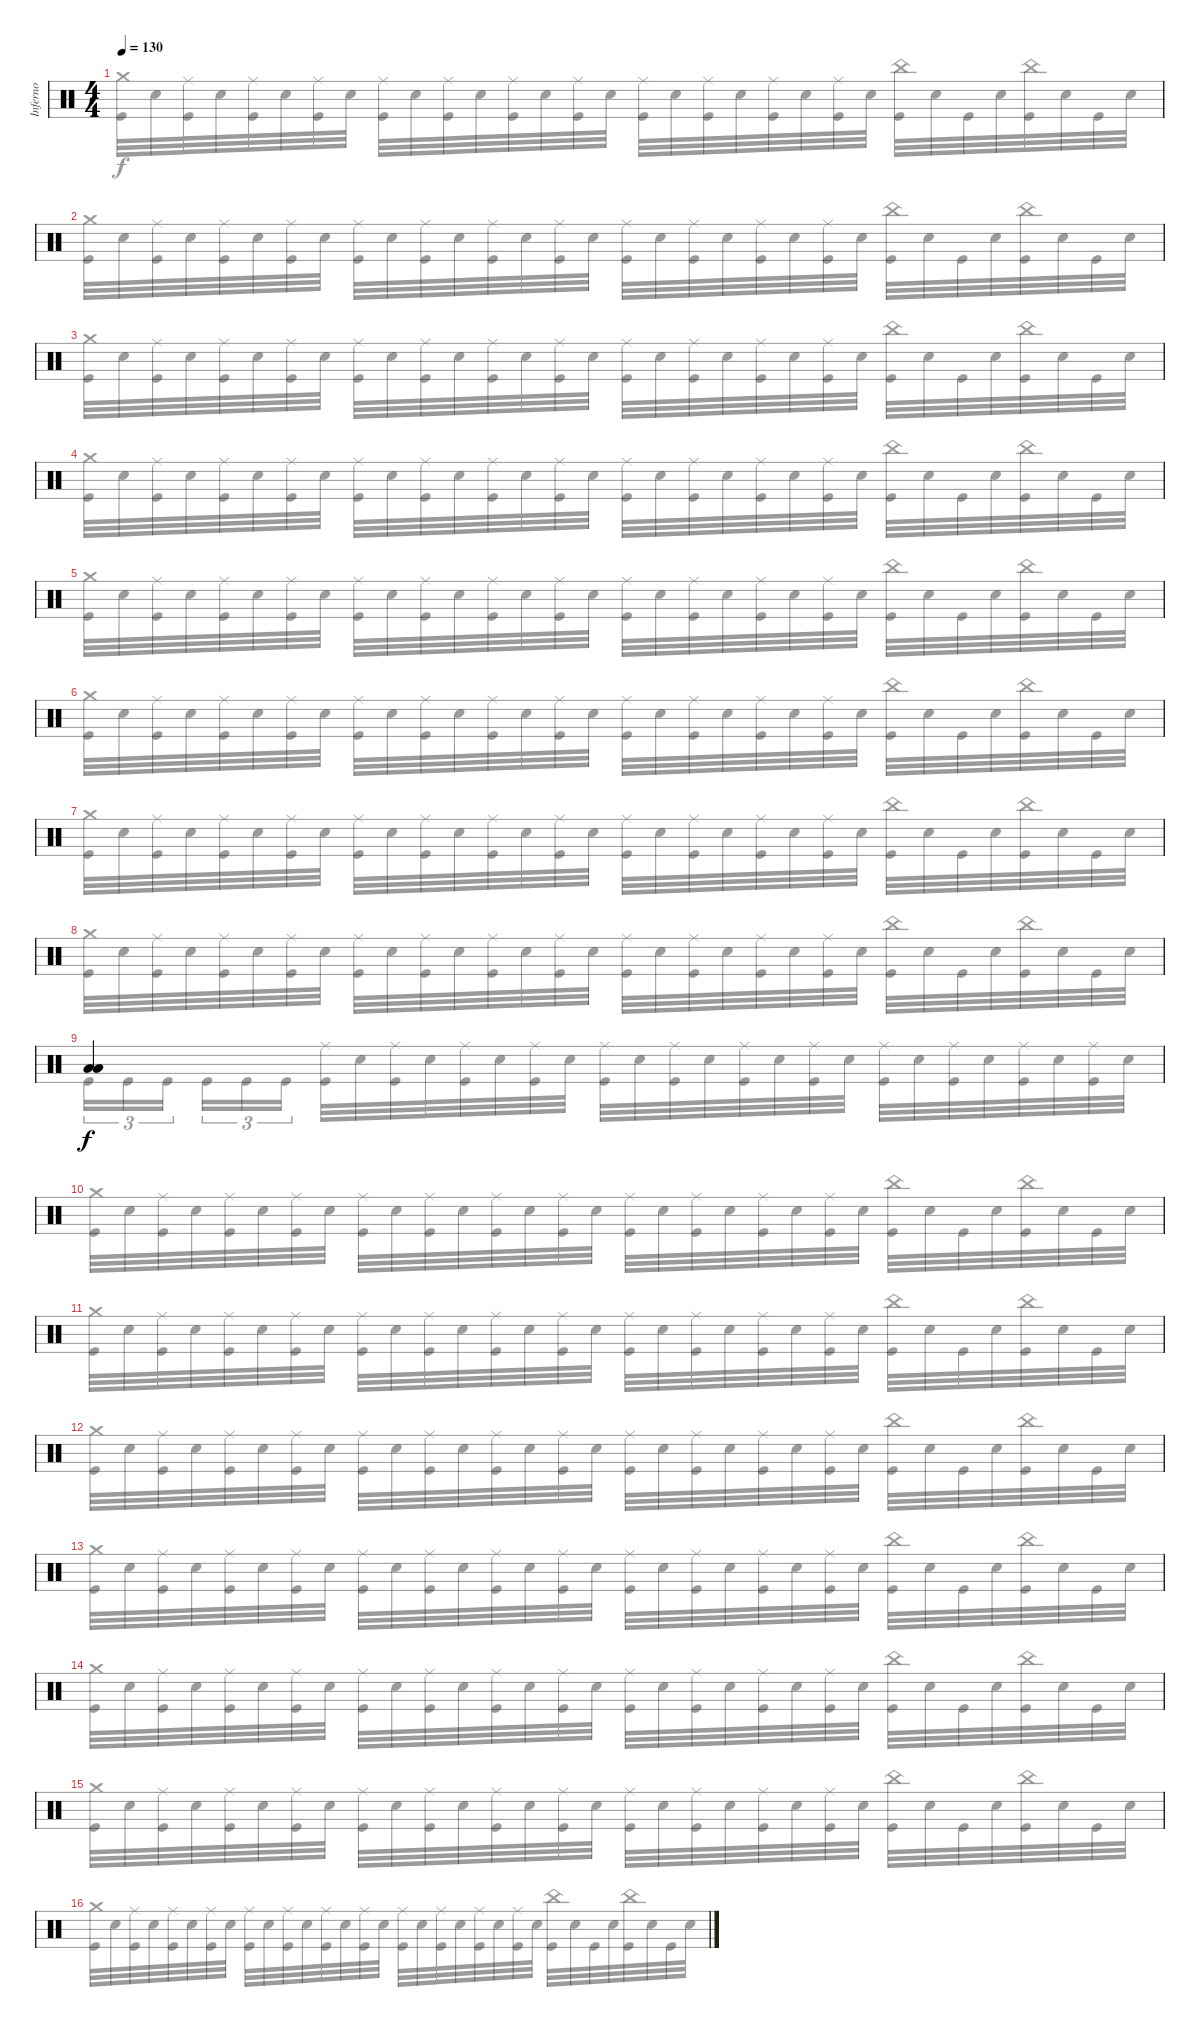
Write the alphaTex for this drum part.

\track ("Inferno" "Inferno") {instrument percussion}
\staff {score}
\articulation defaults
\voice
\ts (4 4)
\tempo 130
\clef neutral
\ks c
|
|
|
|
|
|
|
|
("Low Floor Tom (hit)" "Low Tom (hit)").4 |
|
|
|
|
|
|
\voice
\clef neutral
\ottava regular
\simile none
\ks c
("Kick (hit)" "Crash medium (hit)").32{dy f} "Snare (hit) 2".32 ("Kick (hit)" "Ride (middle)").32 "Snare (hit) 2".32 ("Kick (hit)" "Ride (middle)").32 "Snare (hit) 2".32 ("Kick (hit)" "Ride (middle)").32 "Snare (hit) 2".32 ("Kick (hit)" "Ride (middle)").32 "Snare (hit) 2".32 ("Kick (hit)" "Ride (middle)").32 "Snare (hit) 2".32 ("Kick (hit)" "Ride (middle)").32 "Snare (hit) 2".32 ("Kick (hit)" "Ride (middle)").32 "Snare (hit) 2".32 ("Kick (hit)" "Ride (middle)").32 "Snare (hit) 2".32 ("Kick (hit)" "Ride (middle)").32 "Snare (hit) 2".32 ("Kick (hit)" "Ride (middle)").32 "Snare (hit) 2".32 ("Kick (hit)" "Ride (middle)").32 "Snare (hit) 2".32 ("Kick (hit)" "China (hit)").32 "Snare (hit) 2".32 "Kick (hit)".32 "Snare (hit) 2".32 ("Kick (hit)" "China (hit)").32 "Snare (hit) 2".32 "Kick (hit)".32 "Snare (hit) 2".32 |
("Kick (hit)" "Crash medium (hit)").32 "Snare (hit) 2".32 ("Kick (hit)" "Ride (middle)").32 "Snare (hit) 2".32 ("Kick (hit)" "Ride (middle)").32 "Snare (hit) 2".32 ("Kick (hit)" "Ride (middle)").32 "Snare (hit) 2".32 ("Kick (hit)" "Ride (middle)").32 "Snare (hit) 2".32 ("Kick (hit)" "Ride (middle)").32 "Snare (hit) 2".32 ("Kick (hit)" "Ride (middle)").32 "Snare (hit) 2".32 ("Kick (hit)" "Ride (middle)").32 "Snare (hit) 2".32 ("Kick (hit)" "Ride (middle)").32 "Snare (hit) 2".32 ("Kick (hit)" "Ride (middle)").32 "Snare (hit) 2".32 ("Kick (hit)" "Ride (middle)").32 "Snare (hit) 2".32 ("Kick (hit)" "Ride (middle)").32 "Snare (hit) 2".32 ("Kick (hit)" "China (hit)").32 "Snare (hit) 2".32 "Kick (hit)".32 "Snare (hit) 2".32 ("Kick (hit)" "China (hit)").32 "Snare (hit) 2".32 "Kick (hit)".32 "Snare (hit) 2".32 |
("Kick (hit)" "Crash medium (hit)").32 "Snare (hit) 2".32 ("Kick (hit)" "Ride (middle)").32 "Snare (hit) 2".32 ("Kick (hit)" "Ride (middle)").32 "Snare (hit) 2".32 ("Kick (hit)" "Ride (middle)").32 "Snare (hit) 2".32 ("Kick (hit)" "Ride (middle)").32 "Snare (hit) 2".32 ("Kick (hit)" "Ride (middle)").32 "Snare (hit) 2".32 ("Kick (hit)" "Ride (middle)").32 "Snare (hit) 2".32 ("Kick (hit)" "Ride (middle)").32 "Snare (hit) 2".32 ("Kick (hit)" "Ride (middle)").32 "Snare (hit) 2".32 ("Kick (hit)" "Ride (middle)").32 "Snare (hit) 2".32 ("Kick (hit)" "Ride (middle)").32 "Snare (hit) 2".32 ("Kick (hit)" "Ride (middle)").32 "Snare (hit) 2".32 ("Kick (hit)" "China (hit)").32 "Snare (hit) 2".32 "Kick (hit)".32 "Snare (hit) 2".32 ("Kick (hit)" "China (hit)").32 "Snare (hit) 2".32 "Kick (hit)".32 "Snare (hit) 2".32 |
("Kick (hit)" "Crash medium (hit)").32 "Snare (hit) 2".32 ("Kick (hit)" "Ride (middle)").32 "Snare (hit) 2".32 ("Kick (hit)" "Ride (middle)").32 "Snare (hit) 2".32 ("Kick (hit)" "Ride (middle)").32 "Snare (hit) 2".32 ("Kick (hit)" "Ride (middle)").32 "Snare (hit) 2".32 ("Kick (hit)" "Ride (middle)").32 "Snare (hit) 2".32 ("Kick (hit)" "Ride (middle)").32 "Snare (hit) 2".32 ("Kick (hit)" "Ride (middle)").32 "Snare (hit) 2".32 ("Kick (hit)" "Ride (middle)").32 "Snare (hit) 2".32 ("Kick (hit)" "Ride (middle)").32 "Snare (hit) 2".32 ("Kick (hit)" "Ride (middle)").32 "Snare (hit) 2".32 ("Kick (hit)" "Ride (middle)").32 "Snare (hit) 2".32 ("Kick (hit)" "China (hit)").32 "Snare (hit) 2".32 "Kick (hit)".32 "Snare (hit) 2".32 ("Kick (hit)" "China (hit)").32 "Snare (hit) 2".32 "Kick (hit)".32 "Snare (hit) 2".32 |
("Kick (hit)" "Crash medium (hit)").32 "Snare (hit) 2".32 ("Kick (hit)" "Ride (middle)").32 "Snare (hit) 2".32 ("Kick (hit)" "Ride (middle)").32 "Snare (hit) 2".32 ("Kick (hit)" "Ride (middle)").32 "Snare (hit) 2".32 ("Kick (hit)" "Ride (middle)").32 "Snare (hit) 2".32 ("Kick (hit)" "Ride (middle)").32 "Snare (hit) 2".32 ("Kick (hit)" "Ride (middle)").32 "Snare (hit) 2".32 ("Kick (hit)" "Ride (middle)").32 "Snare (hit) 2".32 ("Kick (hit)" "Ride (middle)").32 "Snare (hit) 2".32 ("Kick (hit)" "Ride (middle)").32 "Snare (hit) 2".32 ("Kick (hit)" "Ride (middle)").32 "Snare (hit) 2".32 ("Kick (hit)" "Ride (middle)").32 "Snare (hit) 2".32 ("Kick (hit)" "China (hit)").32 "Snare (hit) 2".32 "Kick (hit)".32 "Snare (hit) 2".32 ("Kick (hit)" "China (hit)").32 "Snare (hit) 2".32 "Kick (hit)".32 "Snare (hit) 2".32 |
("Kick (hit)" "Crash medium (hit)").32 "Snare (hit) 2".32 ("Kick (hit)" "Ride (middle)").32 "Snare (hit) 2".32 ("Kick (hit)" "Ride (middle)").32 "Snare (hit) 2".32 ("Kick (hit)" "Ride (middle)").32 "Snare (hit) 2".32 ("Kick (hit)" "Ride (middle)").32 "Snare (hit) 2".32 ("Kick (hit)" "Ride (middle)").32 "Snare (hit) 2".32 ("Kick (hit)" "Ride (middle)").32 "Snare (hit) 2".32 ("Kick (hit)" "Ride (middle)").32 "Snare (hit) 2".32 ("Kick (hit)" "Ride (middle)").32 "Snare (hit) 2".32 ("Kick (hit)" "Ride (middle)").32 "Snare (hit) 2".32 ("Kick (hit)" "Ride (middle)").32 "Snare (hit) 2".32 ("Kick (hit)" "Ride (middle)").32 "Snare (hit) 2".32 ("Kick (hit)" "China (hit)").32 "Snare (hit) 2".32 "Kick (hit)".32 "Snare (hit) 2".32 ("Kick (hit)" "China (hit)").32 "Snare (hit) 2".32 "Kick (hit)".32 "Snare (hit) 2".32 |
("Kick (hit)" "Crash medium (hit)").32 "Snare (hit) 2".32 ("Kick (hit)" "Ride (middle)").32 "Snare (hit) 2".32 ("Kick (hit)" "Ride (middle)").32 "Snare (hit) 2".32 ("Kick (hit)" "Ride (middle)").32 "Snare (hit) 2".32 ("Kick (hit)" "Ride (middle)").32 "Snare (hit) 2".32 ("Kick (hit)" "Ride (middle)").32 "Snare (hit) 2".32 ("Kick (hit)" "Ride (middle)").32 "Snare (hit) 2".32 ("Kick (hit)" "Ride (middle)").32 "Snare (hit) 2".32 ("Kick (hit)" "Ride (middle)").32 "Snare (hit) 2".32 ("Kick (hit)" "Ride (middle)").32 "Snare (hit) 2".32 ("Kick (hit)" "Ride (middle)").32 "Snare (hit) 2".32 ("Kick (hit)" "Ride (middle)").32 "Snare (hit) 2".32 ("Kick (hit)" "China (hit)").32 "Snare (hit) 2".32 "Kick (hit)".32 "Snare (hit) 2".32 ("Kick (hit)" "China (hit)").32 "Snare (hit) 2".32 "Kick (hit)".32 "Snare (hit) 2".32 |
("Kick (hit)" "Crash medium (hit)").32 "Snare (hit) 2".32 ("Kick (hit)" "Ride (middle)").32 "Snare (hit) 2".32 ("Kick (hit)" "Ride (middle)").32 "Snare (hit) 2".32 ("Kick (hit)" "Ride (middle)").32 "Snare (hit) 2".32 ("Kick (hit)" "Ride (middle)").32 "Snare (hit) 2".32 ("Kick (hit)" "Ride (middle)").32 "Snare (hit) 2".32 ("Kick (hit)" "Ride (middle)").32 "Snare (hit) 2".32 ("Kick (hit)" "Ride (middle)").32 "Snare (hit) 2".32 ("Kick (hit)" "Ride (middle)").32 "Snare (hit) 2".32 ("Kick (hit)" "Ride (middle)").32 "Snare (hit) 2".32 ("Kick (hit)" "Ride (middle)").32 "Snare (hit) 2".32 ("Kick (hit)" "Ride (middle)").32 "Snare (hit) 2".32 ("Kick (hit)" "China (hit)").32 "Snare (hit) 2".32 "Kick (hit)".32 "Snare (hit) 2".32 ("Kick (hit)" "China (hit)").32 "Snare (hit) 2".32 "Kick (hit)".32 "Snare (hit) 2".32 |
"Kick (hit)".16{tu (3 2)} "Kick (hit)".16{tu (3 2)} "Kick (hit)".16{tu (3 2) beam splitsecondary} "Kick (hit)".16{tu (3 2)} "Kick (hit)".16{tu (3 2)} "Kick (hit)".16{tu (3 2)} ("Kick (hit)" "Ride (middle)").32 "Snare (hit) 2".32 ("Kick (hit)" "Ride (middle)").32 "Snare (hit) 2".32 ("Kick (hit)" "Ride (middle)").32 "Snare (hit) 2".32 ("Kick (hit)" "Ride (middle)").32 "Snare (hit) 2".32 ("Kick (hit)" "Ride (middle)").32 "Snare (hit) 2".32 ("Kick (hit)" "Ride (middle)").32 "Snare (hit) 2".32 ("Kick (hit)" "Ride (middle)").32 "Snare (hit) 2".32 ("Kick (hit)" "Ride (middle)").32 "Snare (hit) 2".32 ("Kick (hit)" "Ride (middle)").32 "Snare (hit) 2".32 ("Kick (hit)" "Ride (middle)").32 "Snare (hit) 2".32 ("Kick (hit)" "Ride (middle)").32 "Snare (hit) 2".32 ("Kick (hit)" "Ride (middle)").32 "Snare (hit) 2".32 |
("Kick (hit)" "Crash medium (hit)").32 "Snare (hit) 2".32 ("Kick (hit)" "Ride (middle)").32 "Snare (hit) 2".32 ("Kick (hit)" "Ride (middle)").32 "Snare (hit) 2".32 ("Kick (hit)" "Ride (middle)").32 "Snare (hit) 2".32 ("Kick (hit)" "Ride (middle)").32 "Snare (hit) 2".32 ("Kick (hit)" "Ride (middle)").32 "Snare (hit) 2".32 ("Kick (hit)" "Ride (middle)").32 "Snare (hit) 2".32 ("Kick (hit)" "Ride (middle)").32 "Snare (hit) 2".32 ("Kick (hit)" "Ride (middle)").32 "Snare (hit) 2".32 ("Kick (hit)" "Ride (middle)").32 "Snare (hit) 2".32 ("Kick (hit)" "Ride (middle)").32 "Snare (hit) 2".32 ("Kick (hit)" "Ride (middle)").32 "Snare (hit) 2".32 ("Kick (hit)" "China (hit)").32 "Snare (hit) 2".32 "Kick (hit)".32 "Snare (hit) 2".32 ("Kick (hit)" "China (hit)").32 "Snare (hit) 2".32 "Kick (hit)".32 "Snare (hit) 2".32 |
("Kick (hit)" "Crash medium (hit)").32 "Snare (hit) 2".32 ("Kick (hit)" "Ride (middle)").32 "Snare (hit) 2".32 ("Kick (hit)" "Ride (middle)").32 "Snare (hit) 2".32 ("Kick (hit)" "Ride (middle)").32 "Snare (hit) 2".32 ("Kick (hit)" "Ride (middle)").32 "Snare (hit) 2".32 ("Kick (hit)" "Ride (middle)").32 "Snare (hit) 2".32 ("Kick (hit)" "Ride (middle)").32 "Snare (hit) 2".32 ("Kick (hit)" "Ride (middle)").32 "Snare (hit) 2".32 ("Kick (hit)" "Ride (middle)").32 "Snare (hit) 2".32 ("Kick (hit)" "Ride (middle)").32 "Snare (hit) 2".32 ("Kick (hit)" "Ride (middle)").32 "Snare (hit) 2".32 ("Kick (hit)" "Ride (middle)").32 "Snare (hit) 2".32 ("Kick (hit)" "China (hit)").32 "Snare (hit) 2".32 "Kick (hit)".32 "Snare (hit) 2".32 ("Kick (hit)" "China (hit)").32 "Snare (hit) 2".32 "Kick (hit)".32 "Snare (hit) 2".32 |
("Kick (hit)" "Crash medium (hit)").32 "Snare (hit) 2".32 ("Kick (hit)" "Ride (middle)").32 "Snare (hit) 2".32 ("Kick (hit)" "Ride (middle)").32 "Snare (hit) 2".32 ("Kick (hit)" "Ride (middle)").32 "Snare (hit) 2".32 ("Kick (hit)" "Ride (middle)").32 "Snare (hit) 2".32 ("Kick (hit)" "Ride (middle)").32 "Snare (hit) 2".32 ("Kick (hit)" "Ride (middle)").32 "Snare (hit) 2".32 ("Kick (hit)" "Ride (middle)").32 "Snare (hit) 2".32 ("Kick (hit)" "Ride (middle)").32 "Snare (hit) 2".32 ("Kick (hit)" "Ride (middle)").32 "Snare (hit) 2".32 ("Kick (hit)" "Ride (middle)").32 "Snare (hit) 2".32 ("Kick (hit)" "Ride (middle)").32 "Snare (hit) 2".32 ("Kick (hit)" "China (hit)").32 "Snare (hit) 2".32 "Kick (hit)".32 "Snare (hit) 2".32 ("Kick (hit)" "China (hit)").32 "Snare (hit) 2".32 "Kick (hit)".32 "Snare (hit) 2".32 |
("Kick (hit)" "Crash medium (hit)").32 "Snare (hit) 2".32 ("Kick (hit)" "Ride (middle)").32 "Snare (hit) 2".32 ("Kick (hit)" "Ride (middle)").32 "Snare (hit) 2".32 ("Kick (hit)" "Ride (middle)").32 "Snare (hit) 2".32 ("Kick (hit)" "Ride (middle)").32 "Snare (hit) 2".32 ("Kick (hit)" "Ride (middle)").32 "Snare (hit) 2".32 ("Kick (hit)" "Ride (middle)").32 "Snare (hit) 2".32 ("Kick (hit)" "Ride (middle)").32 "Snare (hit) 2".32 ("Kick (hit)" "Ride (middle)").32 "Snare (hit) 2".32 ("Kick (hit)" "Ride (middle)").32 "Snare (hit) 2".32 ("Kick (hit)" "Ride (middle)").32 "Snare (hit) 2".32 ("Kick (hit)" "Ride (middle)").32 "Snare (hit) 2".32 ("Kick (hit)" "China (hit)").32 "Snare (hit) 2".32 "Kick (hit)".32 "Snare (hit) 2".32 ("Kick (hit)" "China (hit)").32 "Snare (hit) 2".32 "Kick (hit)".32 "Snare (hit) 2".32 |
("Kick (hit)" "Crash medium (hit)").32 "Snare (hit) 2".32 ("Kick (hit)" "Ride (middle)").32 "Snare (hit) 2".32 ("Kick (hit)" "Ride (middle)").32 "Snare (hit) 2".32 ("Kick (hit)" "Ride (middle)").32 "Snare (hit) 2".32 ("Kick (hit)" "Ride (middle)").32 "Snare (hit) 2".32 ("Kick (hit)" "Ride (middle)").32 "Snare (hit) 2".32 ("Kick (hit)" "Ride (middle)").32 "Snare (hit) 2".32 ("Kick (hit)" "Ride (middle)").32 "Snare (hit) 2".32 ("Kick (hit)" "Ride (middle)").32 "Snare (hit) 2".32 ("Kick (hit)" "Ride (middle)").32 "Snare (hit) 2".32 ("Kick (hit)" "Ride (middle)").32 "Snare (hit) 2".32 ("Kick (hit)" "Ride (middle)").32 "Snare (hit) 2".32 ("Kick (hit)" "China (hit)").32 "Snare (hit) 2".32 "Kick (hit)".32 "Snare (hit) 2".32 ("Kick (hit)" "China (hit)").32 "Snare (hit) 2".32 "Kick (hit)".32 "Snare (hit) 2".32 |
("Kick (hit)" "Crash medium (hit)").32 "Snare (hit) 2".32 ("Kick (hit)" "Ride (middle)").32 "Snare (hit) 2".32 ("Kick (hit)" "Ride (middle)").32 "Snare (hit) 2".32 ("Kick (hit)" "Ride (middle)").32 "Snare (hit) 2".32 ("Kick (hit)" "Ride (middle)").32 "Snare (hit) 2".32 ("Kick (hit)" "Ride (middle)").32 "Snare (hit) 2".32 ("Kick (hit)" "Ride (middle)").32 "Snare (hit) 2".32 ("Kick (hit)" "Ride (middle)").32 "Snare (hit) 2".32 ("Kick (hit)" "Ride (middle)").32 "Snare (hit) 2".32 ("Kick (hit)" "Ride (middle)").32 "Snare (hit) 2".32 ("Kick (hit)" "Ride (middle)").32 "Snare (hit) 2".32 ("Kick (hit)" "Ride (middle)").32 "Snare (hit) 2".32 ("Kick (hit)" "China (hit)").32 "Snare (hit) 2".32 "Kick (hit)".32 "Snare (hit) 2".32 ("Kick (hit)" "China (hit)").32 "Snare (hit) 2".32 "Kick (hit)".32 "Snare (hit) 2".32 |
("Kick (hit)" "Crash medium (hit)").32 "Snare (hit) 2".32 ("Kick (hit)" "Ride (middle)").32 "Snare (hit) 2".32 ("Kick (hit)" "Ride (middle)").32 "Snare (hit) 2".32 ("Kick (hit)" "Ride (middle)").32 "Snare (hit) 2".32 ("Kick (hit)" "Ride (middle)").32 "Snare (hit) 2".32 ("Kick (hit)" "Ride (middle)").32 "Snare (hit) 2".32 ("Kick (hit)" "Ride (middle)").32 "Snare (hit) 2".32 ("Kick (hit)" "Ride (middle)").32 "Snare (hit) 2".32 ("Kick (hit)" "Ride (middle)").32 "Snare (hit) 2".32 ("Kick (hit)" "Ride (middle)").32 "Snare (hit) 2".32 ("Kick (hit)" "Ride (middle)").32 "Snare (hit) 2".32 ("Kick (hit)" "Ride (middle)").32 "Snare (hit) 2".32 ("Kick (hit)" "China (hit)").32 "Snare (hit) 2".32 "Kick (hit)".32 "Snare (hit) 2".32 ("Kick (hit)" "China (hit)").32 "Snare (hit) 2".32 "Kick (hit)".32 "Snare (hit) 2".32
